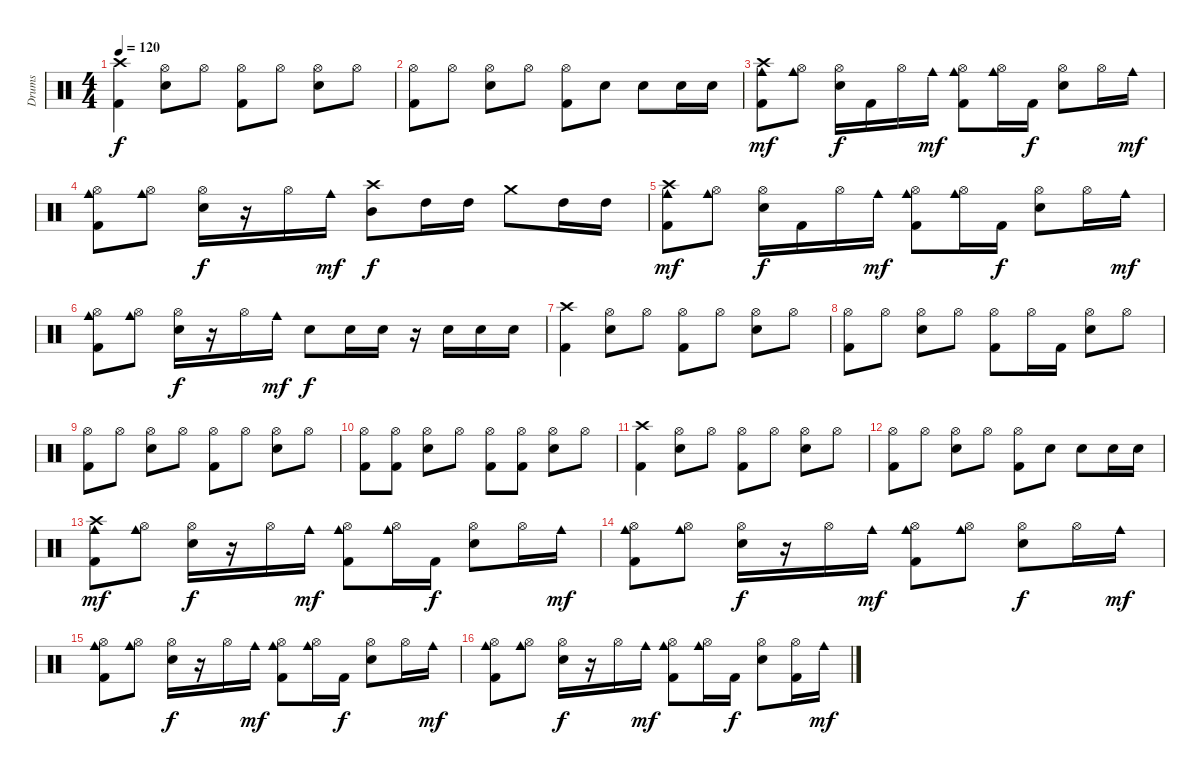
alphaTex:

\track ("Drums" "Drums") {instrument percussion}
\staff {score}
\articulation defaults
\ts (4 4)
\tempo 120
\clef neutral
\ks c
("Kick (hit) 2" "Crash high (hit)").4{dy f} ("Snare (hit) 2" "Hi-Hat (open)").8 "Hi-Hat (open)".8 ("Kick (hit) 2" "Hi-Hat (open)").8 "Hi-Hat (open)".8 ("Snare (hit) 2" "Hi-Hat (open)").8 "Hi-Hat (open)".8 |
("Kick (hit) 2" "Hi-Hat (open)").8 "Hi-Hat (open)".8 ("Snare (hit) 2" "Hi-Hat (open)").8 "Hi-Hat (open)".8 ("Kick (hit) 2" "Hi-Hat (open)").8 "Snare (hit) 2".8 "Snare (hit) 2".8 "Snare (hit) 2".16 "Snare (hit) 2".16 |
("Kick (hit) 2" "Crash high (hit)" "Cowbell medium (hit)").8{dy mf} ("Hi-Hat (open)" "Cowbell medium (hit)").8 ("Snare (hit) 2" "Hi-Hat (open)").16{dy f} "Kick (hit) 2".16 "Hi-Hat (open)".16 "Cowbell medium (hit)".16{dy mf} ("Kick (hit) 2" "Hi-Hat (open)" "Cowbell medium (hit)").8 ("Hi-Hat (open)" "Cowbell medium (hit)").16 "Kick (hit) 2".16{dy f} ("Snare (hit) 2" "Hi-Hat (open)").8 "Hi-Hat (open)".16 "Cowbell medium (hit)".16{dy mf} |
("Kick (hit) 2" "Hi-Hat (open)" "Cowbell medium (hit)").8 ("Hi-Hat (open)" "Cowbell medium (hit)").8 ("Snare (hit) 2" "Hi-Hat (open)").16{dy f} r.16 "Hi-Hat (open)".16 "Cowbell medium (hit)".16{dy mf} ("Crash high (hit)" "Mid Tom (hit)").8{dy f} "High Tom (hit)".16 "High Tom (hit)".16 "Crash medium (hit)".8 "High Tom (hit)".16 "High Tom (hit)".16 |
("Kick (hit) 2" "Crash high (hit)" "Cowbell medium (hit)").8{dy mf} ("Hi-Hat (open)" "Cowbell medium (hit)").8 ("Snare (hit) 2" "Hi-Hat (open)").16{dy f} "Kick (hit) 2".16 "Hi-Hat (open)".16 "Cowbell medium (hit)".16{dy mf} ("Kick (hit) 2" "Hi-Hat (open)" "Cowbell medium (hit)").8 ("Hi-Hat (open)" "Cowbell medium (hit)").16 "Kick (hit) 2".16{dy f} ("Snare (hit) 2" "Hi-Hat (open)").8 "Hi-Hat (open)".16 "Cowbell medium (hit)".16{dy mf} |
("Kick (hit) 2" "Hi-Hat (open)" "Cowbell medium (hit)").8 ("Hi-Hat (open)" "Cowbell medium (hit)").8 ("Snare (hit) 2" "Hi-Hat (open)").16{dy f} r.16 "Hi-Hat (open)".16 "Cowbell medium (hit)".16{dy mf} "Snare (hit) 2".8{dy f} "Snare (hit) 2".16 "Snare (hit) 2".16 r.16 "Snare (hit) 2".16 "Snare (hit) 2".16 "Snare (hit) 2".16 |
("Kick (hit) 2" "Crash high (hit)").4 ("Snare (hit) 2" "Hi-Hat (open)").8 "Hi-Hat (open)".8 ("Kick (hit) 2" "Hi-Hat (open)").8 "Hi-Hat (open)".8 ("Snare (hit) 2" "Hi-Hat (open)").8 "Hi-Hat (open)".8 |
("Kick (hit) 2" "Hi-Hat (open)").8 "Hi-Hat (open)".8 ("Snare (hit) 2" "Hi-Hat (open)").8 "Hi-Hat (open)".8 ("Kick (hit) 2" "Hi-Hat (open)").8 "Hi-Hat (open)".16 "Kick (hit) 2".16 ("Snare (hit) 2" "Hi-Hat (open)").8 "Hi-Hat (open)".8 |
("Kick (hit) 2" "Hi-Hat (open)").8 "Hi-Hat (open)".8 ("Snare (hit) 2" "Hi-Hat (open)").8 "Hi-Hat (open)".8 ("Kick (hit) 2" "Hi-Hat (open)").8 "Hi-Hat (open)".8 ("Snare (hit) 2" "Hi-Hat (open)").8 "Hi-Hat (open)".8 |
("Kick (hit) 2" "Hi-Hat (open)").8 ("Kick (hit) 2" "Hi-Hat (open)").8 ("Snare (hit) 2" "Hi-Hat (open)").8 "Hi-Hat (open)".8 ("Kick (hit) 2" "Hi-Hat (open)").8 ("Kick (hit) 2" "Hi-Hat (open)").8 ("Snare (hit) 2" "Hi-Hat (open)").8 "Hi-Hat (open)".8 |
("Kick (hit) 2" "Crash high (hit)").4 ("Snare (hit) 2" "Hi-Hat (open)").8 "Hi-Hat (open)".8 ("Kick (hit) 2" "Hi-Hat (open)").8 "Hi-Hat (open)".8 ("Snare (hit) 2" "Hi-Hat (open)").8 "Hi-Hat (open)".8 |
("Kick (hit) 2" "Hi-Hat (open)").8 "Hi-Hat (open)".8 ("Snare (hit) 2" "Hi-Hat (open)").8 "Hi-Hat (open)".8 ("Kick (hit) 2" "Hi-Hat (open)").8 "Snare (hit) 2".8 "Snare (hit) 2".8 "Snare (hit) 2".16 "Snare (hit) 2".16 |
("Kick (hit) 2" "Crash high (hit)" "Cowbell medium (hit)").8{dy mf} ("Hi-Hat (open)" "Cowbell medium (hit)").8 ("Snare (hit) 2" "Hi-Hat (open)").16{dy f} r.16 "Hi-Hat (open)".16 "Cowbell medium (hit)".16{dy mf} ("Kick (hit) 2" "Hi-Hat (open)" "Cowbell medium (hit)").8 ("Hi-Hat (open)" "Cowbell medium (hit)").16 "Kick (hit) 2".16{dy f} ("Snare (hit) 2" "Hi-Hat (open)").8 "Hi-Hat (open)".16 "Cowbell medium (hit)".16{dy mf} |
("Kick (hit) 2" "Hi-Hat (open)" "Cowbell medium (hit)").8 ("Hi-Hat (open)" "Cowbell medium (hit)").8 ("Snare (hit) 2" "Hi-Hat (open)").16{dy f} r.16 "Hi-Hat (open)".16 "Cowbell medium (hit)".16{dy mf} ("Kick (hit) 2" "Hi-Hat (open)" "Cowbell medium (hit)").8 ("Hi-Hat (open)" "Cowbell medium (hit)").8 ("Snare (hit) 2" "Hi-Hat (open)").8{dy f} "Hi-Hat (open)".16 "Cowbell medium (hit)".16{dy mf} |
("Kick (hit) 2" "Hi-Hat (open)" "Cowbell medium (hit)").8 ("Hi-Hat (open)" "Cowbell medium (hit)").8 ("Snare (hit) 2" "Hi-Hat (open)").16{dy f} r.16 "Hi-Hat (open)".16 "Cowbell medium (hit)".16{dy mf} ("Kick (hit) 2" "Hi-Hat (open)" "Cowbell medium (hit)").8 ("Hi-Hat (open)" "Cowbell medium (hit)").16 "Kick (hit) 2".16{dy f} ("Snare (hit) 2" "Hi-Hat (open)").8 "Hi-Hat (open)".16 "Cowbell medium (hit)".16{dy mf} |
("Kick (hit) 2" "Hi-Hat (open)" "Cowbell medium (hit)").8 ("Hi-Hat (open)" "Cowbell medium (hit)").8 ("Snare (hit) 2" "Hi-Hat (open)").16{dy f} r.16 "Hi-Hat (open)".16 "Cowbell medium (hit)".16{dy mf} ("Kick (hit) 2" "Hi-Hat (open)" "Cowbell medium (hit)").8 ("Hi-Hat (open)" "Cowbell medium (hit)").16 "Kick (hit) 2".16{dy f} ("Snare (hit) 2" "Hi-Hat (open)").8 ("Kick (hit) 2" "Hi-Hat (open)").16 "Cowbell medium (hit)".16{dy mf}
